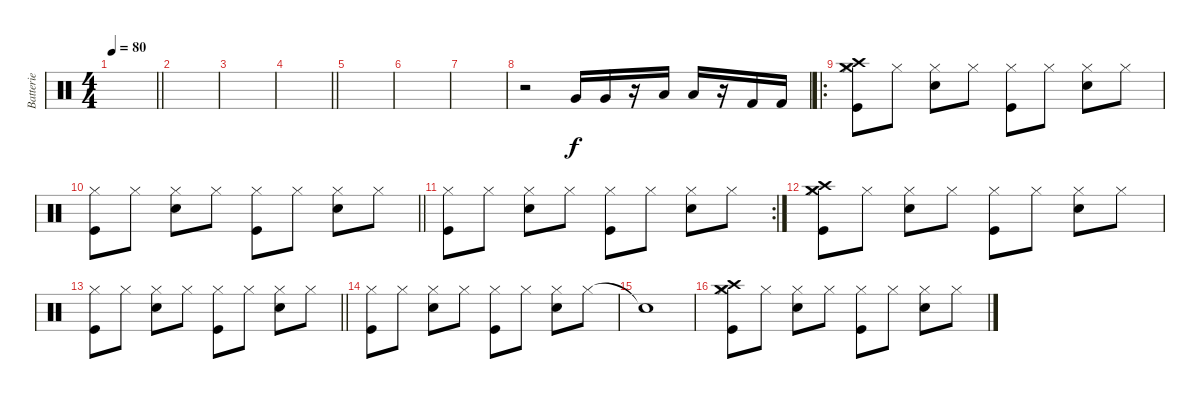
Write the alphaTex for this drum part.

\track ("Batterie" "Batterie") {instrument percussion}
\staff {score}
\articulation defaults
\ts (4 4)
\tempo 80
\clef neutral
\barLineRight lightlight
\ks c
|
|
|
\barLineRight lightlight
|
|
|
|
r.2 "Very Low Tom (hit)".16 "Very Low Tom (hit)".16 r.16 "Low Floor Tom (hit)".16 "Low Floor Tom (hit)".16 r.16 "Kick (hit) 2".16 "Kick (hit) 2".16 |
\ro
("Kick (hit)" "Hi-Hat (closed)" "Crash medium (hit)" "Crash high (hit)").8 "Hi-Hat (closed)".8 ("Snare (hit) 2" "Hi-Hat (closed)").8 "Hi-Hat (closed)".8 ("Kick (hit)" "Hi-Hat (closed)").8 "Hi-Hat (closed)".8 ("Snare (hit) 2" "Hi-Hat (closed)").8 "Hi-Hat (closed)".8 |
\barLineRight lightlight
("Kick (hit)" "Hi-Hat (closed)").8 "Hi-Hat (closed)".8 ("Snare (hit) 2" "Hi-Hat (closed)").8 "Hi-Hat (closed)".8 ("Kick (hit)" "Hi-Hat (closed)").8 "Hi-Hat (closed)".8 ("Snare (hit) 2" "Hi-Hat (closed)").8 "Hi-Hat (closed)".8 |
\rc 2
("Kick (hit)" "Hi-Hat (closed)").8 "Hi-Hat (closed)".8 ("Snare (hit) 2" "Hi-Hat (closed)").8 "Hi-Hat (closed)".8 ("Kick (hit)" "Hi-Hat (closed)").8 "Hi-Hat (closed)".8 ("Snare (hit) 2" "Hi-Hat (closed)").8 "Hi-Hat (closed)".8 |
("Kick (hit)" "Hi-Hat (closed)" "Crash medium (hit)" "Crash high (hit)").8 "Hi-Hat (closed)".8 ("Snare (hit) 2" "Hi-Hat (closed)").8 "Hi-Hat (closed)".8 ("Kick (hit)" "Hi-Hat (closed)").8 "Hi-Hat (closed)".8 ("Snare (hit) 2" "Hi-Hat (closed)").8 "Hi-Hat (closed)".8 |
\barLineRight lightlight
("Kick (hit)" "Hi-Hat (closed)").8 "Hi-Hat (closed)".8 ("Snare (hit) 2" "Hi-Hat (closed)").8 "Hi-Hat (closed)".8 ("Kick (hit)" "Hi-Hat (closed)").8 "Hi-Hat (closed)".8 ("Snare (hit) 2" "Hi-Hat (closed)").8 "Hi-Hat (closed)".8 |
("Kick (hit)" "Hi-Hat (closed)").8 "Hi-Hat (closed)".8 ("Snare (hit) 2" "Hi-Hat (closed)").8 "Hi-Hat (closed)".8 ("Kick (hit)" "Hi-Hat (closed)").8 "Hi-Hat (closed)".8 ("Snare (hit) 2" "Hi-Hat (closed)").8 "Hi-Hat (closed)".8 |
"Snare (hit)"{t}.1 |
("Kick (hit)" "Hi-Hat (closed)" "Crash medium (hit)" "Crash high (hit)").8 "Hi-Hat (closed)".8 ("Snare (hit) 2" "Hi-Hat (closed)").8 "Hi-Hat (closed)".8 ("Kick (hit)" "Hi-Hat (closed)").8 "Hi-Hat (closed)".8 ("Snare (hit) 2" "Hi-Hat (closed)").8 "Hi-Hat (closed)".8
